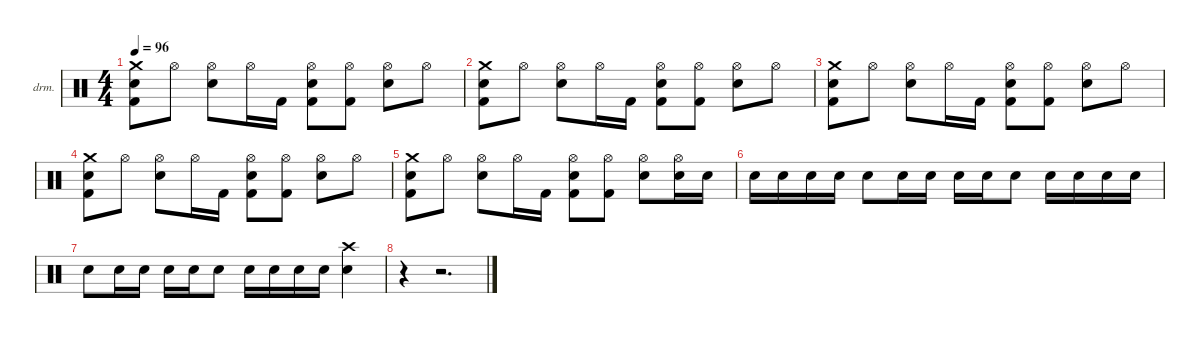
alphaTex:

\defaultSystemsLayout 4
\hideDynamics
\bracketExtendMode nobrackets
\firstSystemTrackNameOrientation horizontal
\otherSystemsTrackNameOrientation horizontal
\track ("Percussion" "drm.") {instrument percussion}
\staff {score}
\articulation defaults
\ts (4 4)
\tempo 96
\clef neutral
\ks c
("Crash medium (hit)" "Snare (hit) 2" "Kick (hit) 2").8{dy f} "Hi-Hat (open)".8 ("Hi-Hat (open)" "Snare (hit) 2").8 "Hi-Hat (open)".16 "Kick (hit) 2".16 ("Hi-Hat (open)" "Snare (hit) 2" "Kick (hit) 2").8 ("Hi-Hat (open)" "Kick (hit) 2").8 ("Hi-Hat (open)" "Snare (hit) 2").8 "Hi-Hat (open)".8 |
("Crash medium (hit)" "Snare (hit) 2" "Kick (hit) 2").8 "Hi-Hat (open)".8 ("Hi-Hat (open)" "Snare (hit) 2").8 "Hi-Hat (open)".16 "Kick (hit) 2".16 ("Hi-Hat (open)" "Snare (hit) 2" "Kick (hit) 2").8 ("Hi-Hat (open)" "Kick (hit) 2").8 ("Hi-Hat (open)" "Snare (hit) 2").8 "Hi-Hat (open)".8 |
("Crash medium (hit)" "Snare (hit) 2" "Kick (hit) 2").8 "Hi-Hat (open)".8 ("Hi-Hat (open)" "Snare (hit) 2").8 "Hi-Hat (open)".16 "Kick (hit) 2".16 ("Hi-Hat (open)" "Snare (hit) 2" "Kick (hit) 2").8 ("Hi-Hat (open)" "Kick (hit) 2").8 ("Hi-Hat (open)" "Snare (hit) 2").8 "Hi-Hat (open)".8 |
("Crash medium (hit)" "Snare (hit) 2" "Kick (hit) 2").8 "Hi-Hat (open)".8 ("Hi-Hat (open)" "Snare (hit) 2").8 "Hi-Hat (open)".16 "Kick (hit) 2".16 ("Hi-Hat (open)" "Snare (hit) 2" "Kick (hit) 2").8 ("Hi-Hat (open)" "Kick (hit) 2").8 ("Hi-Hat (open)" "Snare (hit) 2").8 "Hi-Hat (open)".8 |
("Crash medium (hit)" "Snare (hit) 2" "Kick (hit) 2").8 "Hi-Hat (open)".8 ("Hi-Hat (open)" "Snare (hit) 2").8 "Hi-Hat (open)".16 "Kick (hit) 2".16 ("Hi-Hat (open)" "Snare (hit) 2" "Kick (hit) 2").8 ("Hi-Hat (open)" "Kick (hit) 2").8 ("Hi-Hat (open)" "Snare (hit) 2").8 ("Hi-Hat (open)" "Snare (hit) 2").16 "Snare (hit) 2".16 |
"Snare (hit) 2".16 "Snare (hit) 2".16 "Snare (hit) 2".16 "Snare (hit) 2".16 "Snare (hit) 2".8 "Snare (hit) 2".16 "Snare (hit) 2".16 "Snare (hit) 2".16 "Snare (hit) 2".16 "Snare (hit) 2".8 "Snare (hit) 2".16 "Snare (hit) 2".16 "Snare (hit) 2".16 "Snare (hit) 2".16 |
"Snare (hit) 2".8 "Snare (hit) 2".16 "Snare (hit) 2".16 "Snare (hit) 2".16 "Snare (hit) 2".16 "Snare (hit) 2".8 "Snare (hit) 2".16 "Snare (hit) 2".16 "Snare (hit) 2".16 "Snare (hit) 2".16 ("Crash high (hit)" "Snare (hit) 2").4 |
r.4 r.2{d}
